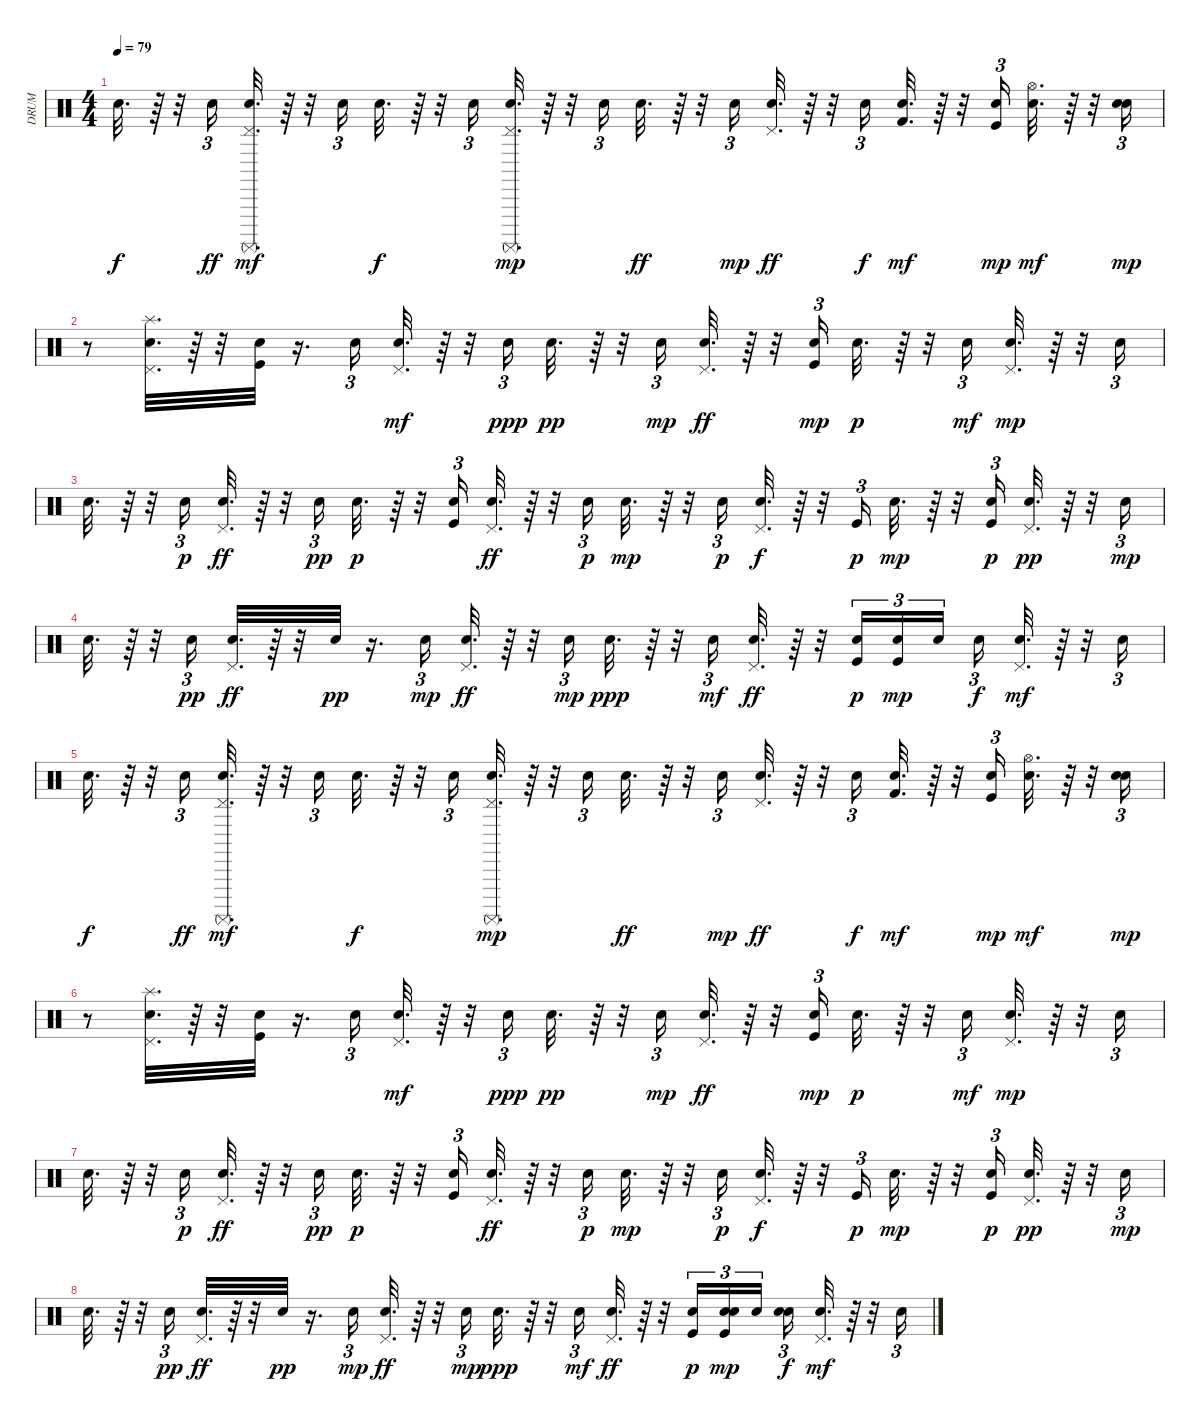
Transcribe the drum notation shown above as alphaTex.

\track ("DRUM" "DRUM") {instrument percussion}
\staff {score}
\articulation defaults
\ts (4 4)
\tempo 79
\clef neutral
\ks c "Hand Clap (hit)".32{d dy f}
r.64 r.32 "Hand Clap (hit)".16{tu (3 2) dy ff} ("Snare (hit) 2" "Surdo (mute)" "Pedal Hi-Hat (hit)").32{d dy mf} r.64 r.32 "Snare (hit) 2".16{tu (3 2)} "Hand Clap (hit)".32{d dy f} r.64 r.32 "Hand Clap (hit)".16{tu (3 2)} ("Surdo (mute)" "Pedal Hi-Hat (hit)" "Snare (hit) 2").32{d dy mp} r.64 r.32 "Snare (hit) 2".16{tu (3 2)} "Hand Clap (hit)".32{d dy ff} r.64 r.32 "Snare (hit) 2".16{tu (3 2) dy mp} ("Pedal Hi-Hat (hit)" "Hand Clap (hit)").32{d dy ff} r.64 r.32 "Hand Clap (hit)".16{tu (3 2) dy f} ("Kick (hit) 2" "Snare (hit) 2").32{d dy mf} r.64 r.32 ("Hand Clap (hit)" "Kick (hit)").16{tu (3 2) dy mp} ("Hand Clap (hit)" "Hi-Hat (open)").32{d dy mf} r.64 r.32 ("Hand Clap (hit)" "Snare (hit) 2").16{tu (3 2) dy mp} |
r.8 ("Hand Clap (hit)" "Pedal Hi-Hat (hit)" "Splash (hit)").32{d} r.64 r.32 ("Snare (hit) 2" "Kick (hit)").32 r.16{d} "Snare (hit) 2".16{tu (3 2)} ("Hand Clap (hit)" "Pedal Hi-Hat (hit)").32{d dy mf} r.64 r.32 "Snare (hit) 2".16{tu (3 2) dy ppp} "Snare (hit) 2".32{d dy pp} r.64 r.32 "Snare (hit) 2".16{tu (3 2) dy mp} ("Snare (hit) 2" "Pedal Hi-Hat (hit)").32{d dy ff} r.64 r.32 ("Snare (hit) 2" "Kick (hit)").16{tu (3 2) dy mp} "Snare (hit) 2".32{d dy p} r.64 r.32 "Hand Clap (hit)".16{tu (3 2) dy mf} ("Snare (hit) 2" "Pedal Hi-Hat (hit)").32{d dy mp} r.64 r.32 "Snare (hit) 2".16{tu (3 2)} |
"Snare (hit) 2".32{d} r.64 r.32 "Snare (hit) 2".16{tu (3 2) dy p} ("Pedal Hi-Hat (hit)" "Snare (hit) 2").32{d dy ff} r.64 r.32 "Snare (hit) 2".16{tu (3 2) dy pp} "Snare (hit) 2".32{d dy p} r.64 r.32 ("Hand Clap (hit)" "Kick (hit)").16{tu (3 2)} ("Snare (hit) 2" "Pedal Hi-Hat (hit)").32{d dy ff} r.64 r.32 "Snare (hit) 2".16{tu (3 2) dy p} "Snare (hit) 2".32{d dy mp} r.64 r.32 "Snare (hit) 2".16{tu (3 2) dy p} ("Pedal Hi-Hat (hit)" "Snare (hit) 2").32{d dy f} r.64 r.32 "Kick (hit)".16{tu (3 2) dy p} "Snare (hit) 2".32{d dy mp} r.64 r.32 ("Hand Clap (hit)" "Kick (hit)").16{tu (3 2) dy p} ("Pedal Hi-Hat (hit)" "Snare (hit) 2").32{d dy pp} r.64 r.32 "Hand Clap (hit)".16{tu (3 2) dy mp} |
"Snare (hit) 2".32{d} r.64 r.32 "Snare (hit) 2".16{tu (3 2) dy pp} ("Hand Clap (hit)" "Pedal Hi-Hat (hit)").32{d dy ff} r.64 r.32 "Snare (hit) 2".32{dy pp} r.16{d} "Snare (hit) 2".16{tu (3 2) dy mp} ("Pedal Hi-Hat (hit)" "Snare (hit) 2").32{d dy ff} r.64 r.32 "Snare (hit) 2".16{tu (3 2) dy mp} "Snare (hit) 2".32{d dy ppp} r.64 r.32 "Hand Clap (hit)".16{tu (3 2) dy mf} ("Snare (hit) 2" "Pedal Hi-Hat (hit)").32{d dy ff} r.64 r.32 ("Kick (hit)" "Snare (hit) 2").16{tu (3 2) dy p} ("Snare (hit) 2" "Kick (hit)").16{tu (3 2) dy mp} "Snare (hit) 2".16{tu (3 2)} "Hand Clap (hit)".16{tu (3 2) dy f} ("Snare (hit) 2" "Pedal Hi-Hat (hit)").32{d dy mf} r.64 r.32 "Snare (hit) 2".16{tu (3 2)} |
"Hand Clap (hit)".32{d dy f} r.64 r.32 "Hand Clap (hit)".16{tu (3 2) dy ff} ("Snare (hit) 2" "Surdo (mute)" "Pedal Hi-Hat (hit)").32{d dy mf} r.64 r.32 "Snare (hit) 2".16{tu (3 2)} "Hand Clap (hit)".32{d dy f} r.64 r.32 "Hand Clap (hit)".16{tu (3 2)} ("Surdo (mute)" "Pedal Hi-Hat (hit)" "Snare (hit) 2").32{d dy mp} r.64 r.32 "Snare (hit) 2".16{tu (3 2)} "Hand Clap (hit)".32{d dy ff} r.64 r.32 "Snare (hit) 2".16{tu (3 2) dy mp} ("Pedal Hi-Hat (hit)" "Hand Clap (hit)").32{d dy ff} r.64 r.32 "Hand Clap (hit)".16{tu (3 2) dy f} ("Kick (hit) 2" "Snare (hit) 2").32{d dy mf} r.64 r.32 ("Hand Clap (hit)" "Kick (hit)").16{tu (3 2) dy mp} ("Hand Clap (hit)" "Hi-Hat (open)").32{d dy mf} r.64 r.32 ("Hand Clap (hit)" "Snare (hit) 2").16{tu (3 2) dy mp} |
r.8 ("Hand Clap (hit)" "Pedal Hi-Hat (hit)" "Splash (hit)").32{d} r.64 r.32 ("Snare (hit) 2" "Kick (hit)").32 r.16{d} "Snare (hit) 2".16{tu (3 2)} ("Hand Clap (hit)" "Pedal Hi-Hat (hit)").32{d dy mf} r.64 r.32 "Snare (hit) 2".16{tu (3 2) dy ppp} "Snare (hit) 2".32{d dy pp} r.64 r.32 "Snare (hit) 2".16{tu (3 2) dy mp} ("Snare (hit) 2" "Pedal Hi-Hat (hit)").32{d dy ff} r.64 r.32 ("Snare (hit) 2" "Kick (hit)").16{tu (3 2) dy mp} "Snare (hit) 2".32{d dy p} r.64 r.32 "Hand Clap (hit)".16{tu (3 2) dy mf} ("Snare (hit) 2" "Pedal Hi-Hat (hit)").32{d dy mp} r.64 r.32 "Snare (hit) 2".16{tu (3 2)} |
"Snare (hit) 2".32{d} r.64 r.32 "Snare (hit) 2".16{tu (3 2) dy p} ("Pedal Hi-Hat (hit)" "Snare (hit) 2").32{d dy ff} r.64 r.32 "Snare (hit) 2".16{tu (3 2) dy pp} "Snare (hit) 2".32{d dy p} r.64 r.32 ("Hand Clap (hit)" "Kick (hit)").16{tu (3 2)} ("Snare (hit) 2" "Pedal Hi-Hat (hit)").32{d dy ff} r.64 r.32 "Snare (hit) 2".16{tu (3 2) dy p} "Snare (hit) 2".32{d dy mp} r.64 r.32 "Snare (hit) 2".16{tu (3 2) dy p} ("Pedal Hi-Hat (hit)" "Snare (hit) 2").32{d dy f} r.64 r.32 "Kick (hit)".16{tu (3 2) dy p} "Snare (hit) 2".32{d dy mp} r.64 r.32 ("Hand Clap (hit)" "Kick (hit)").16{tu (3 2) dy p} ("Pedal Hi-Hat (hit)" "Snare (hit) 2").32{d dy pp} r.64 r.32 "Hand Clap (hit)".16{tu (3 2) dy mp} |
"Snare (hit) 2".32{d} r.64 r.32 "Snare (hit) 2".16{tu (3 2) dy pp} ("Hand Clap (hit)" "Pedal Hi-Hat (hit)").32{d dy ff} r.64 r.32 "Snare (hit) 2".32{dy pp} r.16{d} "Snare (hit) 2".16{tu (3 2) dy mp} ("Pedal Hi-Hat (hit)" "Snare (hit) 2").32{d dy ff} r.64 r.32 "Snare (hit) 2".16{tu (3 2) dy mp} "Snare (hit) 2".32{d dy ppp} r.64 r.32 "Hand Clap (hit)".16{tu (3 2) dy mf} ("Snare (hit) 2" "Pedal Hi-Hat (hit)").32{d dy ff} r.64 r.32 ("Kick (hit)" "Snare (hit) 2").16{tu (3 2) dy p} ("Snare (hit) 2" "Kick (hit)" "Snare (hit) 2").16{tu (3 2) dy mp} "Snare (hit) 2".16{tu (3 2)} ("Hand Clap (hit)" "Hand Clap (hit)").16{tu (3 2) dy f} ("Snare (hit) 2" "Pedal Hi-Hat (hit)").32{d dy mf} r.64 r.32 "Snare (hit) 2".16{tu (3 2)}
